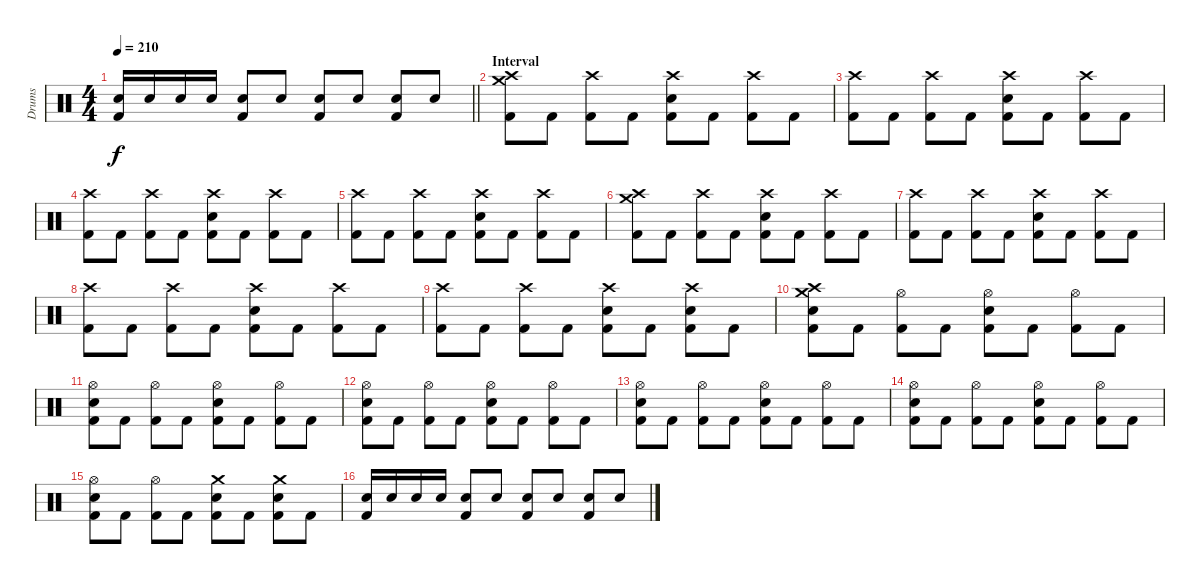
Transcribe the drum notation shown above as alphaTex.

\track ("Drums" "Drums") {instrument percussion}
\staff {score}
\articulation defaults
\ts (4 4)
\tempo 210
\clef neutral
\barLineRight lightlight
\ks c
("Kick (hit) 2" "Electric Snare (hit)").16{dy f} "Electric Snare (hit)".16 "Electric Snare (hit)".16 "Electric Snare (hit)".16 ("Kick (hit) 2" "Electric Snare (hit)").8 "Electric Snare (hit)".8 ("Kick (hit) 2" "Electric Snare (hit)").8 "Electric Snare (hit)".8 ("Kick (hit) 2" "Electric Snare (hit)").8 "Electric Snare (hit)".8 |
\section ("" "Interval")
("Kick (hit) 2" "Crash high (hit)" "Crash medium (hit)").8 "Kick (hit) 2".8 ("Kick (hit) 2" "Crash high (hit)").8 "Kick (hit) 2".8 ("Kick (hit) 2" "Electric Snare (hit)" "Crash high (hit)").8 "Kick (hit) 2".8 ("Kick (hit) 2" "Crash high (hit)").8 "Kick (hit) 2".8 |
("Kick (hit) 2" "Crash high (hit)").8 "Kick (hit) 2".8 ("Kick (hit) 2" "Crash high (hit)").8 "Kick (hit) 2".8 ("Kick (hit) 2" "Electric Snare (hit)" "Crash high (hit)").8 "Kick (hit) 2".8 ("Kick (hit) 2" "Crash high (hit)").8 "Kick (hit) 2".8 |
("Kick (hit) 2" "Crash high (hit)").8 "Kick (hit) 2".8 ("Kick (hit) 2" "Crash high (hit)").8 "Kick (hit) 2".8 ("Kick (hit) 2" "Electric Snare (hit)" "Crash high (hit)").8 "Kick (hit) 2".8 ("Kick (hit) 2" "Crash high (hit)").8 "Kick (hit) 2".8 |
("Kick (hit) 2" "Crash high (hit)").8 "Kick (hit) 2".8 ("Kick (hit) 2" "Crash high (hit)").8 "Kick (hit) 2".8 ("Kick (hit) 2" "Electric Snare (hit)" "Crash high (hit)").8 "Kick (hit) 2".8 ("Kick (hit) 2" "Crash high (hit)").8 "Kick (hit) 2".8 |
("Kick (hit) 2" "Crash high (hit)" "Crash medium (hit)").8 "Kick (hit) 2".8 ("Kick (hit) 2" "Crash high (hit)").8 "Kick (hit) 2".8 ("Kick (hit) 2" "Electric Snare (hit)" "Crash high (hit)").8 "Kick (hit) 2".8 ("Kick (hit) 2" "Crash high (hit)").8 "Kick (hit) 2".8 |
("Kick (hit) 2" "Crash high (hit)").8 "Kick (hit) 2".8 ("Kick (hit) 2" "Crash high (hit)").8 "Kick (hit) 2".8 ("Kick (hit) 2" "Electric Snare (hit)" "Crash high (hit)").8 "Kick (hit) 2".8 ("Kick (hit) 2" "Crash high (hit)").8 "Kick (hit) 2".8 |
("Kick (hit) 2" "Crash high (hit)").8 "Kick (hit) 2".8 ("Kick (hit) 2" "Crash high (hit)").8 "Kick (hit) 2".8 ("Kick (hit) 2" "Electric Snare (hit)" "Crash high (hit)").8 "Kick (hit) 2".8 ("Kick (hit) 2" "Crash high (hit)").8 "Kick (hit) 2".8 |
("Kick (hit) 2" "Crash high (hit)").8 "Kick (hit) 2".8 ("Kick (hit) 2" "Crash high (hit)").8 "Kick (hit) 2".8 ("Kick (hit) 2" "Electric Snare (hit)" "Crash high (hit)").8 "Kick (hit) 2".8 ("Kick (hit) 2" "Electric Snare (hit)" "Crash high (hit)").8 "Kick (hit) 2".8 |
("Kick (hit) 2" "Electric Snare (hit)" "Crash high (hit)" "Crash medium (hit)").8 "Kick (hit) 2".8 ("Kick (hit) 2" "Hi-Hat (open)").8 "Kick (hit) 2".8 ("Kick (hit) 2" "Electric Snare (hit)" "Hi-Hat (open)").8 "Kick (hit) 2".8 ("Kick (hit) 2" "Hi-Hat (open)").8 "Kick (hit) 2".8 |
("Kick (hit) 2" "Electric Snare (hit)" "Hi-Hat (open)").8 "Kick (hit) 2".8 ("Kick (hit) 2" "Hi-Hat (open)").8 "Kick (hit) 2".8 ("Kick (hit) 2" "Electric Snare (hit)" "Hi-Hat (open)").8 "Kick (hit) 2".8 ("Kick (hit) 2" "Hi-Hat (open)").8 "Kick (hit) 2".8 |
("Kick (hit) 2" "Electric Snare (hit)" "Hi-Hat (open)").8 "Kick (hit) 2".8 ("Kick (hit) 2" "Hi-Hat (open)").8 "Kick (hit) 2".8 ("Kick (hit) 2" "Electric Snare (hit)" "Hi-Hat (open)").8 "Kick (hit) 2".8 ("Kick (hit) 2" "Hi-Hat (open)").8 "Kick (hit) 2".8 |
("Kick (hit) 2" "Electric Snare (hit)" "Hi-Hat (open)").8 "Kick (hit) 2".8 ("Kick (hit) 2" "Hi-Hat (open)").8 "Kick (hit) 2".8 ("Kick (hit) 2" "Electric Snare (hit)" "Hi-Hat (open)").8 "Kick (hit) 2".8 ("Kick (hit) 2" "Hi-Hat (open)").8 "Kick (hit) 2".8 |
("Kick (hit) 2" "Electric Snare (hit)" "Hi-Hat (open)").8 "Kick (hit) 2".8 ("Kick (hit) 2" "Hi-Hat (open)").8 "Kick (hit) 2".8 ("Kick (hit) 2" "Electric Snare (hit)" "Hi-Hat (open)").8 "Kick (hit) 2".8 ("Kick (hit) 2" "Hi-Hat (open)").8 "Kick (hit) 2".8 |
("Kick (hit) 2" "Electric Snare (hit)" "Hi-Hat (open)").8 "Kick (hit) 2".8 ("Kick (hit) 2" "Hi-Hat (open)").8 "Kick (hit) 2".8 ("Kick (hit) 2" "Electric Snare (hit)" "Crash medium (hit)").8 "Kick (hit) 2".8 ("Kick (hit) 2" "Electric Snare (hit)" "Crash medium (hit)").8 "Kick (hit) 2".8 |
("Kick (hit) 2" "Electric Snare (hit)").16 "Electric Snare (hit)".16 "Electric Snare (hit)".16 "Electric Snare (hit)".16 ("Kick (hit) 2" "Electric Snare (hit)").8 "Electric Snare (hit)".8 ("Kick (hit) 2" "Electric Snare (hit)").8 "Electric Snare (hit)".8 ("Kick (hit) 2" "Electric Snare (hit)").8 "Electric Snare (hit)".8
